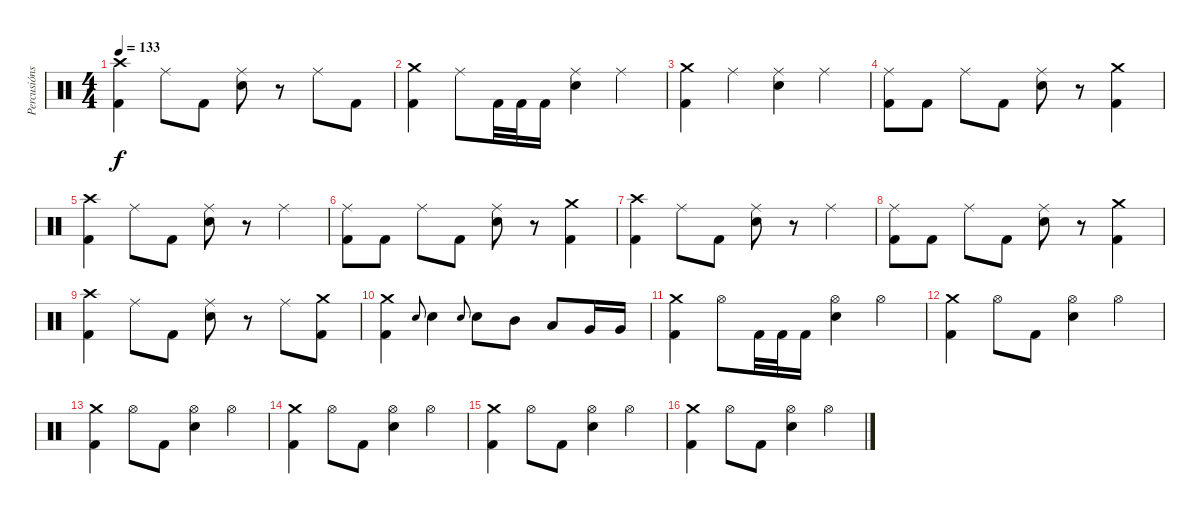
\track ("Percusións" "Percusións") {instrument percussion}
\staff {score}
\articulation defaults
\ts (4 4)
\tempo 133
\clef neutral
\ks c
("Crash high (hit)" "Kick (hit) 2").4{dy f} "Ride (middle)".8 "Kick (hit) 2".8 ("Ride (middle)" "Snare (hit) 2").8 r.8 "Ride (middle)".8 "Kick (hit) 2".8 |
("Crash medium (hit)" "Kick (hit) 2").4 "Ride (middle)".8 "Kick (hit) 2".32 "Kick (hit) 2".32 "Kick (hit) 2".16 ("Ride (middle)" "Snare (hit) 2").4 "Ride (middle)".4 |
("Crash medium (hit)" "Kick (hit) 2").4 "Ride (middle)".4 ("Ride (middle)" "Snare (hit) 2").4 "Ride (middle)".4 |
("Ride (middle)" "Kick (hit) 2").8 "Kick (hit) 2".8 "Ride (middle)".8 "Kick (hit) 2".8 ("Ride (middle)" "Snare (hit) 2").8 r.8 ("Crash medium (hit)" "Kick (hit) 2").4 |
("Crash high (hit)" "Kick (hit) 2").4 "Ride (middle)".8 "Kick (hit) 2".8 ("Ride (middle)" "Snare (hit) 2").8 r.8 "Ride (middle)".4 |
("Ride (middle)" "Kick (hit) 2").8 "Kick (hit) 2".8 "Ride (middle)".8 "Kick (hit) 2".8 ("Ride (middle)" "Snare (hit) 2").8 r.8 ("Crash medium (hit)" "Kick (hit) 2").4 |
("Crash high (hit)" "Kick (hit) 2").4 "Ride (middle)".8 "Kick (hit) 2".8 ("Ride (middle)" "Snare (hit) 2").8 r.8 "Ride (middle)".4 |
("Ride (middle)" "Kick (hit) 2").8 "Kick (hit) 2".8 "Ride (middle)".8 "Kick (hit) 2".8 ("Ride (middle)" "Snare (hit) 2").8 r.8 ("Crash medium (hit)" "Kick (hit) 2").4 |
("Crash high (hit)" "Kick (hit) 2").4 "Ride (middle)".8 "Kick (hit) 2".8 ("Ride (middle)" "Snare (hit) 2").8 r.8 "Ride (middle)".8 ("Crash medium (hit)" "Kick (hit) 2").8 |
("Crash medium (hit)" "Kick (hit) 2").4 "Snare (hit) 2".8{gr onbeat} "Snare (hit) 2".4 "Snare (hit) 2".8{gr onbeat} "Snare (hit) 2".8 "Mid Tom (hit)".8 "Low Tom (hit)".8 "Very Low Tom (hit)".16 "Very Low Tom (hit)".16 |
("Crash medium (hit)" "Kick (hit) 2").4 "Hi-Hat (open)".8 "Kick (hit) 2".32 "Kick (hit) 2".32 "Kick (hit) 2".16 ("Hi-Hat (open)" "Snare (hit) 2").4 "Hi-Hat (open)".4 |
("Crash medium (hit)" "Kick (hit) 2").4 "Hi-Hat (open)".8 "Kick (hit) 2".8 ("Hi-Hat (open)" "Snare (hit) 2").4 "Hi-Hat (open)".4 |
("Crash medium (hit)" "Kick (hit) 2").4 "Hi-Hat (open)".8 "Kick (hit) 2".8 ("Hi-Hat (open)" "Snare (hit) 2").4 "Hi-Hat (open)".4 |
("Crash medium (hit)" "Kick (hit) 2").4 "Hi-Hat (open)".8 "Kick (hit) 2".8 ("Hi-Hat (open)" "Snare (hit) 2").4 "Hi-Hat (open)".4 |
("Crash medium (hit)" "Kick (hit) 2").4 "Hi-Hat (open)".8 "Kick (hit) 2".8 ("Hi-Hat (open)" "Snare (hit) 2").4 "Hi-Hat (open)".4 |
("Crash medium (hit)" "Kick (hit) 2").4 "Hi-Hat (open)".8 "Kick (hit) 2".8 ("Hi-Hat (open)" "Snare (hit) 2").4 "Hi-Hat (open)".4
